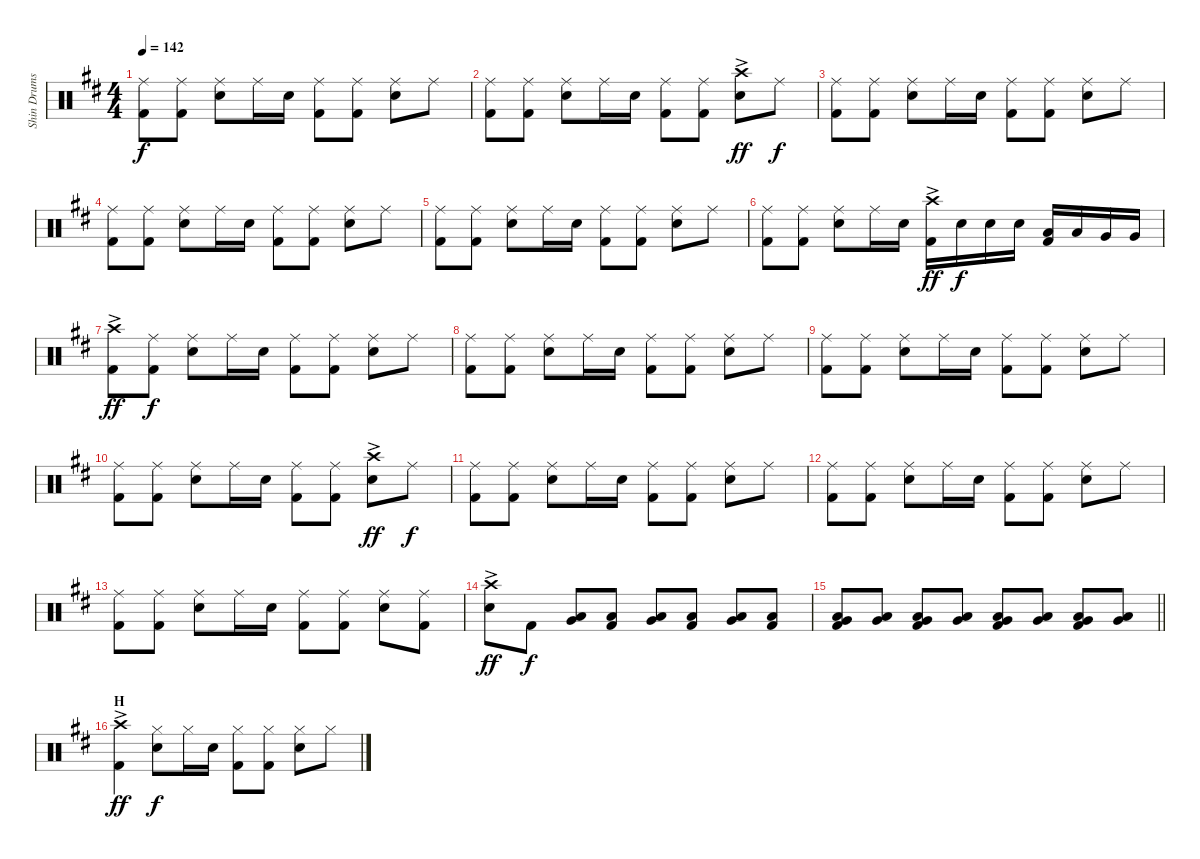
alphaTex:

\track ("Shin Drums" "Shin Drums") {instrument percussion}
\staff {score}
\articulation defaults
\ts (4 4)
\tempo 142
\clef neutral
\ks d
("Ride (middle)" "Kick (hit) 2").8{dy f} ("Ride (middle)" "Kick (hit) 2").8 ("Ride (middle)" "Snare (hit) 2").8 "Ride (middle)".16 "Snare (hit) 2".16 ("Ride (middle)" "Kick (hit) 2").8 ("Ride (middle)" "Kick (hit) 2").8 ("Ride (middle)" "Snare (hit) 2").8 "Ride (middle)".8 |
("Ride (middle)" "Kick (hit) 2").8 ("Ride (middle)" "Kick (hit) 2").8 ("Ride (middle)" "Snare (hit) 2").8 "Ride (middle)".16 "Snare (hit) 2".16 ("Ride (middle)" "Kick (hit) 2").8 ("Ride (middle)" "Kick (hit) 2").8 ("Crash high (hit)"{ac} "Snare (hit) 2").8{dy ff} "Ride (middle)".8{dy f} |
("Ride (middle)" "Kick (hit) 2").8 ("Ride (middle)" "Kick (hit) 2").8 ("Ride (middle)" "Snare (hit) 2").8 "Ride (middle)".16 "Snare (hit) 2".16 ("Ride (middle)" "Kick (hit) 2").8 ("Ride (middle)" "Kick (hit) 2").8 ("Ride (middle)" "Snare (hit) 2").8 "Ride (middle)".8 |
("Ride (middle)" "Kick (hit) 2").8 ("Ride (middle)" "Kick (hit) 2").8 ("Ride (middle)" "Snare (hit) 2").8 "Ride (middle)".16 "Snare (hit) 2".16 ("Ride (middle)" "Kick (hit) 2").8 ("Ride (middle)" "Kick (hit) 2").8 ("Ride (middle)" "Snare (hit) 2").8 "Ride (middle)".8 |
("Ride (middle)" "Kick (hit) 2").8 ("Ride (middle)" "Kick (hit) 2").8 ("Ride (middle)" "Snare (hit) 2").8 "Ride (middle)".16 "Snare (hit) 2".16 ("Ride (middle)" "Kick (hit) 2").8 ("Ride (middle)" "Kick (hit) 2").8 ("Ride (middle)" "Snare (hit) 2").8 "Ride (middle)".8 |
("Ride (middle)" "Kick (hit) 2").8 ("Ride (middle)" "Kick (hit) 2").8 ("Ride (middle)" "Snare (hit) 2").8 "Ride (middle)".16 "Snare (hit) 2".16 ("Crash high (hit)"{ac} "Kick (hit) 2").16{dy ff} "Snare (hit) 2".16{dy f} "Snare (hit) 2".16 "Snare (hit) 2".16 ("Low Tom (hit)" "Kick (hit) 2").16 "Low Tom (hit)".16 "Very Low Tom (hit)".16 "Very Low Tom (hit)".16 |
("Crash high (hit)"{ac} "Kick (hit) 2").8{dy ff} ("Ride (middle)" "Kick (hit) 2").8{dy f} ("Ride (middle)" "Snare (hit) 2").8 "Ride (middle)".16 "Snare (hit) 2".16 ("Ride (middle)" "Kick (hit) 2").8 ("Ride (middle)" "Kick (hit) 2").8 ("Ride (middle)" "Snare (hit) 2").8 "Ride (middle)".8 |
("Ride (middle)" "Kick (hit) 2").8 ("Ride (middle)" "Kick (hit) 2").8 ("Ride (middle)" "Snare (hit) 2").8 "Ride (middle)".16 "Snare (hit) 2".16 ("Ride (middle)" "Kick (hit) 2").8 ("Ride (middle)" "Kick (hit) 2").8 ("Ride (middle)" "Snare (hit) 2").8 "Ride (middle)".8 |
("Ride (middle)" "Kick (hit) 2").8 ("Ride (middle)" "Kick (hit) 2").8 ("Ride (middle)" "Snare (hit) 2").8 "Ride (middle)".16 "Snare (hit) 2".16 ("Ride (middle)" "Kick (hit) 2").8 ("Ride (middle)" "Kick (hit) 2").8 ("Ride (middle)" "Snare (hit) 2").8 "Ride (middle)".8 |
("Ride (middle)" "Kick (hit) 2").8 ("Ride (middle)" "Kick (hit) 2").8 ("Ride (middle)" "Snare (hit) 2").8 "Ride (middle)".16 "Snare (hit) 2".16 ("Ride (middle)" "Kick (hit) 2").8 ("Ride (middle)" "Kick (hit) 2").8 ("Crash high (hit)"{ac} "Snare (hit) 2").8{dy ff} "Ride (middle)".8{dy f} |
("Ride (middle)" "Kick (hit) 2").8 ("Ride (middle)" "Kick (hit) 2").8 ("Ride (middle)" "Snare (hit) 2").8 "Ride (middle)".16 "Snare (hit) 2".16 ("Ride (middle)" "Kick (hit) 2").8 ("Ride (middle)" "Kick (hit) 2").8 ("Ride (middle)" "Snare (hit) 2").8 "Ride (middle)".8 |
("Ride (middle)" "Kick (hit) 2").8 ("Ride (middle)" "Kick (hit) 2").8 ("Ride (middle)" "Snare (hit) 2").8 "Ride (middle)".16 "Snare (hit) 2".16 ("Ride (middle)" "Kick (hit) 2").8 ("Ride (middle)" "Kick (hit) 2").8 ("Ride (middle)" "Snare (hit) 2").8 "Ride (middle)".8 |
("Ride (middle)" "Kick (hit) 2").8 ("Ride (middle)" "Kick (hit) 2").8 ("Ride (middle)" "Snare (hit) 2").8 "Ride (middle)".16 "Snare (hit) 2".16 ("Ride (middle)" "Kick (hit) 2").8 ("Ride (middle)" "Kick (hit) 2").8 ("Ride (middle)" "Snare (hit) 2").8 ("Ride (middle)" "Kick (hit) 2").8 |
("Crash high (hit)"{ac} "Snare (hit) 2").8{dy ff} "Kick (hit) 2".8{dy f} ("Low Tom (hit)" "Very Low Tom (hit)").8 ("Low Tom (hit)" "Kick (hit) 2").8 ("Low Tom (hit)" "Very Low Tom (hit)").8 ("Low Tom (hit)" "Kick (hit) 2").8 ("Low Tom (hit)" "Very Low Tom (hit)").8 ("Low Tom (hit)" "Kick (hit) 2").8 |
\barLineRight lightlight
("Low Tom (hit)" "Very Low Tom (hit)" "Kick (hit) 2").8 ("Low Tom (hit)" "Very Low Tom (hit)").8 ("Low Tom (hit)" "Very Low Tom (hit)" "Kick (hit) 2").8 ("Low Tom (hit)" "Very Low Tom (hit)").8 ("Low Tom (hit)" "Very Low Tom (hit)" "Kick (hit) 2").8 ("Low Tom (hit)" "Very Low Tom (hit)").8 ("Low Tom (hit)" "Very Low Tom (hit)" "Kick (hit) 2").8 ("Low Tom (hit)" "Very Low Tom (hit)").8 |
\section ("" "H")
("Crash high (hit)"{ac} "Kick (hit) 2").4{dy ff} ("Hi-Hat (closed)" "Snare (hit) 2").8{dy f} "Hi-Hat (closed)".16 "Snare (hit) 2".16 ("Hi-Hat (closed)" "Kick (hit) 2").8 ("Hi-Hat (closed)" "Kick (hit) 2").8 ("Hi-Hat (closed)" "Snare (hit) 2").8 "Hi-Hat (closed)".8
